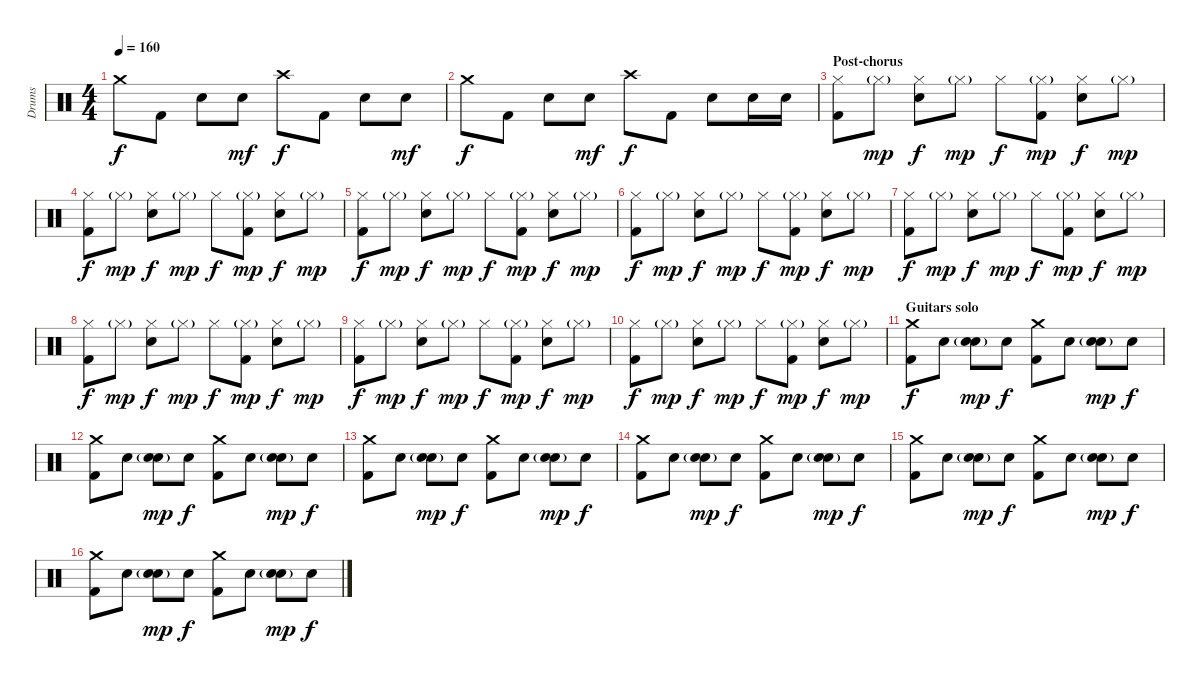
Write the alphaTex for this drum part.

\track ("Drums" "Drums") {instrument percussion}
\staff {score}
\articulation defaults
\ts (4 4)
\tempo 160
\clef neutral
\ks c "Crash medium (hit)".8{dy f} "Kick (hit) 2".8 "Snare (hit) 2".8 "Snare (hit) 2".8{dy mf} "Crash high (hit)".8{dy f} "Kick (hit) 2".8 "Snare (hit) 2".8 "Snare (hit) 2".8{dy mf}
|
"Crash medium (hit)".8{dy f} "Kick (hit) 2".8 "Snare (hit) 2".8 "Snare (hit) 2".8{dy mf} "Crash high (hit)".8{dy f} "Kick (hit) 2".8 "Snare (hit) 2".8 "Snare (hit) 2".16 "Snare (hit) 2".16 |
\section ("" "Post-chorus")
("Hi-Hat (closed)" "Kick (hit) 2").8 "Hi-Hat (closed)"{g}.8{dy mp} ("Hi-Hat (closed)" "Snare (hit) 2").8{dy f} "Hi-Hat (closed)"{g}.8{dy mp} "Hi-Hat (closed)".8{dy f} ("Hi-Hat (closed)"{g} "Kick (hit) 2").8{dy mp} ("Hi-Hat (closed)" "Snare (hit) 2").8{dy f} "Hi-Hat (closed)"{g}.8{dy mp} |
("Hi-Hat (closed)" "Kick (hit) 2").8{dy f} "Hi-Hat (closed)"{g}.8{dy mp} ("Hi-Hat (closed)" "Snare (hit) 2").8{dy f} "Hi-Hat (closed)"{g}.8{dy mp} "Hi-Hat (closed)".8{dy f} ("Hi-Hat (closed)"{g} "Kick (hit) 2").8{dy mp} ("Hi-Hat (closed)" "Snare (hit) 2").8{dy f} "Hi-Hat (closed)"{g}.8{dy mp} |
("Hi-Hat (closed)" "Kick (hit) 2").8{dy f} "Hi-Hat (closed)"{g}.8{dy mp} ("Hi-Hat (closed)" "Snare (hit) 2").8{dy f} "Hi-Hat (closed)"{g}.8{dy mp} "Hi-Hat (closed)".8{dy f} ("Hi-Hat (closed)"{g} "Kick (hit) 2").8{dy mp} ("Hi-Hat (closed)" "Snare (hit) 2").8{dy f} "Hi-Hat (closed)"{g}.8{dy mp} |
("Hi-Hat (closed)" "Kick (hit) 2").8{dy f} "Hi-Hat (closed)"{g}.8{dy mp} ("Hi-Hat (closed)" "Snare (hit) 2").8{dy f} "Hi-Hat (closed)"{g}.8{dy mp} "Hi-Hat (closed)".8{dy f} ("Hi-Hat (closed)"{g} "Kick (hit) 2").8{dy mp} ("Hi-Hat (closed)" "Snare (hit) 2").8{dy f} "Hi-Hat (closed)"{g}.8{dy mp} |
("Hi-Hat (closed)" "Kick (hit) 2").8{dy f} "Hi-Hat (closed)"{g}.8{dy mp} ("Hi-Hat (closed)" "Snare (hit) 2").8{dy f} "Hi-Hat (closed)"{g}.8{dy mp} "Hi-Hat (closed)".8{dy f} ("Hi-Hat (closed)"{g} "Kick (hit) 2").8{dy mp} ("Hi-Hat (closed)" "Snare (hit) 2").8{dy f} "Hi-Hat (closed)"{g}.8{dy mp} |
("Hi-Hat (closed)" "Kick (hit) 2").8{dy f} "Hi-Hat (closed)"{g}.8{dy mp} ("Hi-Hat (closed)" "Snare (hit) 2").8{dy f} "Hi-Hat (closed)"{g}.8{dy mp} "Hi-Hat (closed)".8{dy f} ("Hi-Hat (closed)"{g} "Kick (hit) 2").8{dy mp} ("Hi-Hat (closed)" "Snare (hit) 2").8{dy f} "Hi-Hat (closed)"{g}.8{dy mp} |
("Hi-Hat (closed)" "Kick (hit) 2").8{dy f} "Hi-Hat (closed)"{g}.8{dy mp} ("Hi-Hat (closed)" "Snare (hit) 2").8{dy f} "Hi-Hat (closed)"{g}.8{dy mp} "Hi-Hat (closed)".8{dy f} ("Hi-Hat (closed)"{g} "Kick (hit) 2").8{dy mp} ("Hi-Hat (closed)" "Snare (hit) 2").8{dy f} "Hi-Hat (closed)"{g}.8{dy mp} |
("Hi-Hat (closed)" "Kick (hit) 2").8{dy f} "Hi-Hat (closed)"{g}.8{dy mp} ("Hi-Hat (closed)" "Snare (hit) 2").8{dy f} "Hi-Hat (closed)"{g}.8{dy mp} "Hi-Hat (closed)".8{dy f} ("Hi-Hat (closed)"{g} "Kick (hit) 2").8{dy mp} ("Hi-Hat (closed)" "Snare (hit) 2").8{dy f} "Hi-Hat (closed)"{g}.8{dy mp} |
\section ("" "Guitars solo")
("Crash medium (hit)" "Kick (hit) 2").8{dy f} "Snare (hit) 2".8 ("Hand Clap (hit)"{g} "Snare (hit) 2").8{dy mp} "Snare (hit) 2".8{dy f} ("Crash medium (hit)" "Kick (hit) 2").8 "Snare (hit) 2".8 ("Hand Clap (hit)"{g} "Snare (hit) 2").8{dy mp} "Snare (hit) 2".8{dy f} |
("Crash medium (hit)" "Kick (hit) 2").8 "Snare (hit) 2".8 ("Hand Clap (hit)"{g} "Snare (hit) 2").8{dy mp} "Snare (hit) 2".8{dy f} ("Crash medium (hit)" "Kick (hit) 2").8 "Snare (hit) 2".8 ("Hand Clap (hit)"{g} "Snare (hit) 2").8{dy mp} "Snare (hit) 2".8{dy f} |
("Crash medium (hit)" "Kick (hit) 2").8 "Snare (hit) 2".8 ("Hand Clap (hit)"{g} "Snare (hit) 2").8{dy mp} "Snare (hit) 2".8{dy f} ("Crash medium (hit)" "Kick (hit) 2").8 "Snare (hit) 2".8 ("Hand Clap (hit)"{g} "Snare (hit) 2").8{dy mp} "Snare (hit) 2".8{dy f} |
("Crash medium (hit)" "Kick (hit) 2").8 "Snare (hit) 2".8 ("Hand Clap (hit)"{g} "Snare (hit) 2").8{dy mp} "Snare (hit) 2".8{dy f} ("Crash medium (hit)" "Kick (hit) 2").8 "Snare (hit) 2".8 ("Hand Clap (hit)"{g} "Snare (hit) 2").8{dy mp} "Snare (hit) 2".8{dy f} |
("Crash medium (hit)" "Kick (hit) 2").8 "Snare (hit) 2".8 ("Hand Clap (hit)"{g} "Snare (hit) 2").8{dy mp} "Snare (hit) 2".8{dy f} ("Crash medium (hit)" "Kick (hit) 2").8 "Snare (hit) 2".8 ("Hand Clap (hit)"{g} "Snare (hit) 2").8{dy mp} "Snare (hit) 2".8{dy f} |
("Crash medium (hit)" "Kick (hit) 2").8 "Snare (hit) 2".8 ("Hand Clap (hit)"{g} "Snare (hit) 2").8{dy mp} "Snare (hit) 2".8{dy f} ("Crash medium (hit)" "Kick (hit) 2").8 "Snare (hit) 2".8 ("Hand Clap (hit)"{g} "Snare (hit) 2").8{dy mp} "Snare (hit) 2".8{dy f}
